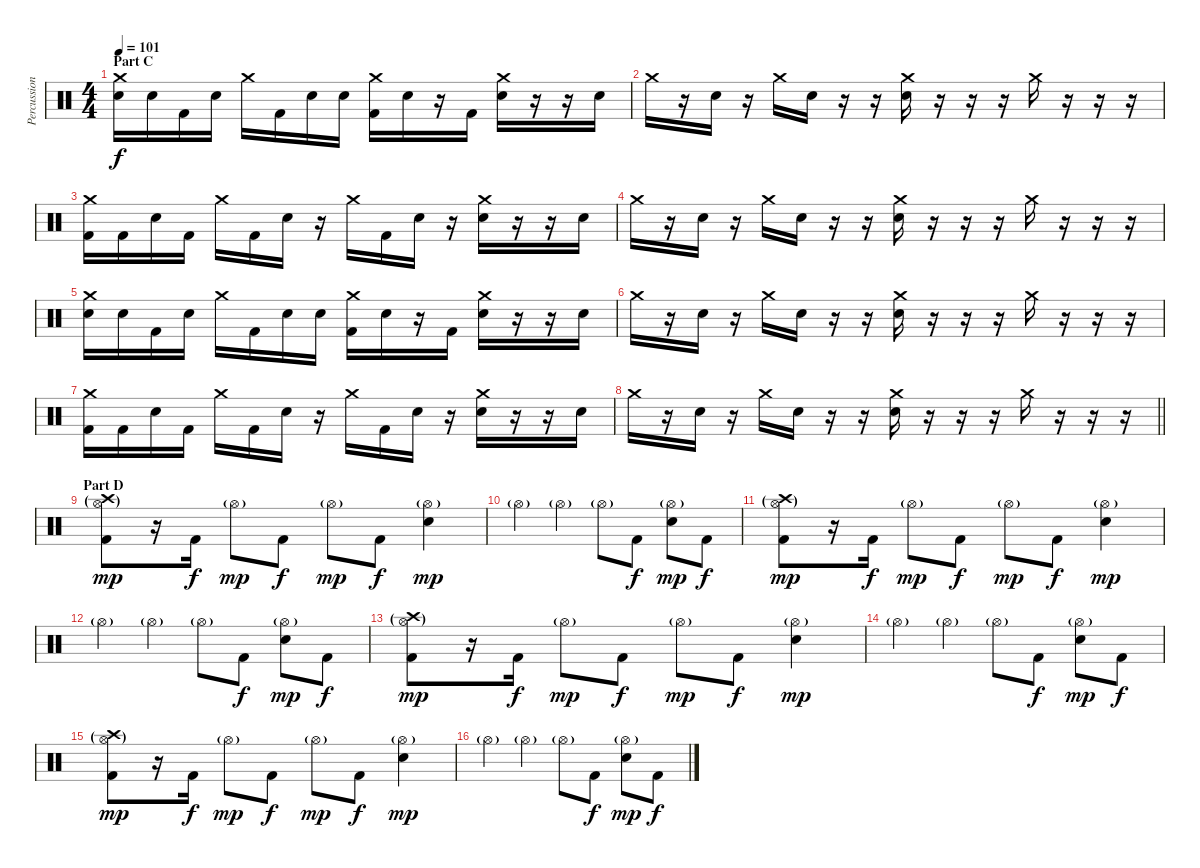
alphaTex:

\track ("Percussion" "Percussion") {instrument percussion}
\staff {score}
\articulation defaults
\ts (4 4)
\section ("" "Part C")
\tempo 101
\clef neutral
\ks c
("Crash medium (hit)" "Electric Snare (hit)").16{dy f} "Electric Snare (hit)".16 "Kick (hit) 2".16 "Electric Snare (hit)".16 "Crash medium (hit)".16 "Kick (hit) 2".16 "Electric Snare (hit)".16 "Electric Snare (hit)".16 ("Crash medium (hit)" "Kick (hit) 2").16 "Electric Snare (hit)".16 r.16 "Kick (hit) 2".16 ("Crash medium (hit)" "Electric Snare (hit)").16 r.16 r.16 "Electric Snare (hit)".16 |
"Crash medium (hit)".16 r.16 "Electric Snare (hit)".16 r.16 "Crash medium (hit)".16 "Electric Snare (hit)".16 r.16 r.16 ("Crash medium (hit)" "Electric Snare (hit)").16 r.16 r.16 r.16 "Crash medium (hit)".16 r.16 r.16 r.16 |
("Crash medium (hit)" "Kick (hit) 2").16 "Kick (hit) 2".16 "Electric Snare (hit)".16 "Kick (hit) 2".16 "Crash medium (hit)".16 "Kick (hit) 2".16 "Electric Snare (hit)".16 r.16 "Crash medium (hit)".16 "Kick (hit) 2".16 "Electric Snare (hit)".16 r.16 ("Crash medium (hit)" "Electric Snare (hit)").16 r.16 r.16 "Electric Snare (hit)".16 |
"Crash medium (hit)".16 r.16 "Electric Snare (hit)".16 r.16 "Crash medium (hit)".16 "Electric Snare (hit)".16 r.16 r.16 ("Crash medium (hit)" "Electric Snare (hit)").16 r.16 r.16 r.16 "Crash medium (hit)".16 r.16 r.16 r.16 |
("Crash medium (hit)" "Electric Snare (hit)").16 "Electric Snare (hit)".16 "Kick (hit) 2".16 "Electric Snare (hit)".16 "Crash medium (hit)".16 "Kick (hit) 2".16 "Electric Snare (hit)".16 "Electric Snare (hit)".16 ("Crash medium (hit)" "Kick (hit) 2").16 "Electric Snare (hit)".16 r.16 "Kick (hit) 2".16 ("Crash medium (hit)" "Electric Snare (hit)").16 r.16 r.16 "Electric Snare (hit)".16 |
"Crash medium (hit)".16 r.16 "Electric Snare (hit)".16 r.16 "Crash medium (hit)".16 "Electric Snare (hit)".16 r.16 r.16 ("Crash medium (hit)" "Electric Snare (hit)").16 r.16 r.16 r.16 "Crash medium (hit)".16 r.16 r.16 r.16 |
("Crash medium (hit)" "Kick (hit) 2").16 "Kick (hit) 2".16 "Electric Snare (hit)".16 "Kick (hit) 2".16 "Crash medium (hit)".16 "Kick (hit) 2".16 "Electric Snare (hit)".16 r.16 "Crash medium (hit)".16 "Kick (hit) 2".16 "Electric Snare (hit)".16 r.16 ("Crash medium (hit)" "Electric Snare (hit)").16 r.16 r.16 "Electric Snare (hit)".16 |
\barLineRight lightlight "Crash medium (hit)".16
r.16 "Electric Snare (hit)".16 r.16 "Crash medium (hit)".16 "Electric Snare (hit)".16 r.16 r.16 ("Crash medium (hit)" "Electric Snare (hit)").16 r.16 r.16 r.16 "Crash medium (hit)".16 r.16 r.16 r.16 |
\section ("" "Part D")
("Crash high (hit)"{g} "Hi-Hat (open)"{g} "Kick (hit) 2").8{dy mp} r.16 "Kick (hit) 2".16{dy f} "Hi-Hat (open)"{g}.8{dy mp} "Kick (hit) 2".8{dy f} "Hi-Hat (open)"{g}.8{dy mp} "Kick (hit) 2".8{dy f} ("Electric Snare (hit)" "Hi-Hat (open)"{g}).4{dy mp} |
"Hi-Hat (open)"{g}.4 "Hi-Hat (open)"{g}.4 "Hi-Hat (open)"{g}.8 "Kick (hit) 2".8{dy f} ("Electric Snare (hit)" "Hi-Hat (open)"{g}).8{dy mp} "Kick (hit) 2".8{dy f} |
("Crash high (hit)"{g} "Hi-Hat (open)"{g} "Kick (hit) 2").8{dy mp} r.16 "Kick (hit) 2".16{dy f} "Hi-Hat (open)"{g}.8{dy mp} "Kick (hit) 2".8{dy f} "Hi-Hat (open)"{g}.8{dy mp} "Kick (hit) 2".8{dy f} ("Electric Snare (hit)" "Hi-Hat (open)"{g}).4{dy mp} |
"Hi-Hat (open)"{g}.4 "Hi-Hat (open)"{g}.4 "Hi-Hat (open)"{g}.8 "Kick (hit) 2".8{dy f} ("Electric Snare (hit)" "Hi-Hat (open)"{g}).8{dy mp} "Kick (hit) 2".8{dy f} |
("Crash high (hit)"{g} "Hi-Hat (open)"{g} "Kick (hit) 2").8{dy mp} r.16 "Kick (hit) 2".16{dy f} "Hi-Hat (open)"{g}.8{dy mp} "Kick (hit) 2".8{dy f} "Hi-Hat (open)"{g}.8{dy mp} "Kick (hit) 2".8{dy f} ("Electric Snare (hit)" "Hi-Hat (open)"{g}).4{dy mp} |
"Hi-Hat (open)"{g}.4 "Hi-Hat (open)"{g}.4 "Hi-Hat (open)"{g}.8 "Kick (hit) 2".8{dy f} ("Electric Snare (hit)" "Hi-Hat (open)"{g}).8{dy mp} "Kick (hit) 2".8{dy f} |
("Crash high (hit)"{g} "Hi-Hat (open)"{g} "Kick (hit) 2").8{dy mp} r.16 "Kick (hit) 2".16{dy f} "Hi-Hat (open)"{g}.8{dy mp} "Kick (hit) 2".8{dy f} "Hi-Hat (open)"{g}.8{dy mp} "Kick (hit) 2".8{dy f} ("Electric Snare (hit)" "Hi-Hat (open)"{g}).4{dy mp} |
"Hi-Hat (open)"{g}.4 "Hi-Hat (open)"{g}.4 "Hi-Hat (open)"{g}.8 "Kick (hit) 2".8{dy f} ("Electric Snare (hit)" "Hi-Hat (open)"{g}).8{dy mp} "Kick (hit) 2".8{dy f}
